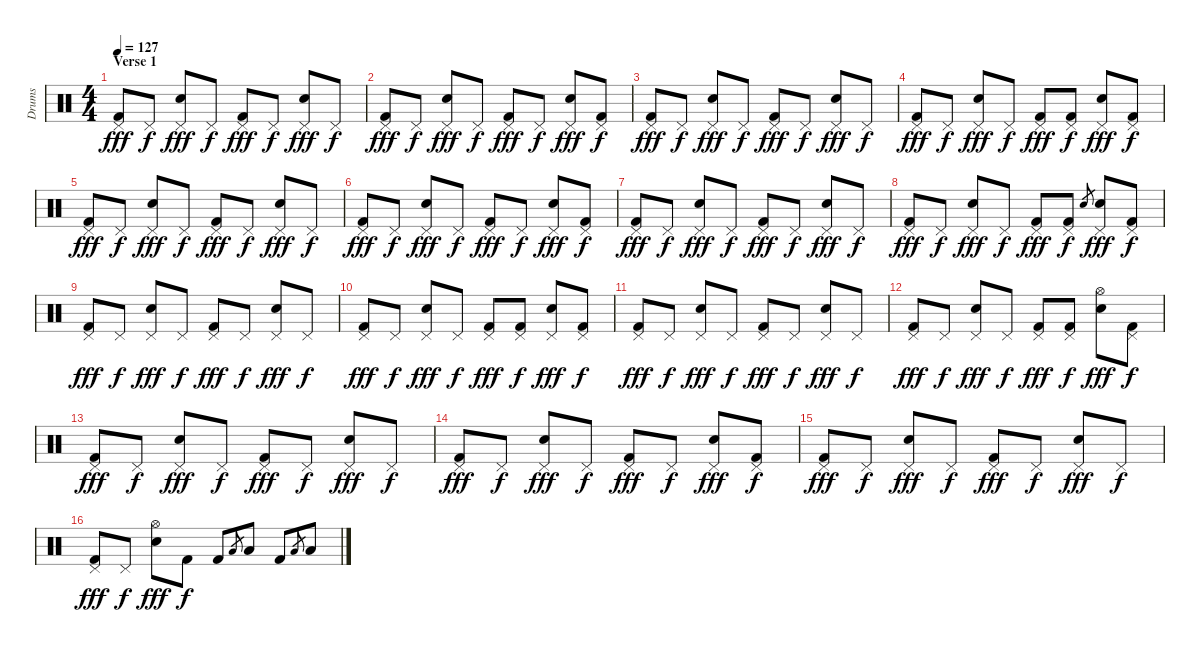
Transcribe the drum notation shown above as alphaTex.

\track ("Drums" "Drums") {instrument percussion}
\staff {score}
\articulation defaults
\ts (4 4)
\section ("" "Verse 1")
\tempo 127
\clef neutral
\ks c
("Pedal Hi-Hat (hit)" "Kick (hit) 2").8{dy fff} "Pedal Hi-Hat (hit)".8{dy f} ("Pedal Hi-Hat (hit)" "Snare (hit) 2").8{dy fff} "Pedal Hi-Hat (hit)".8{dy f} ("Pedal Hi-Hat (hit)" "Kick (hit) 2").8{dy fff} "Pedal Hi-Hat (hit)".8{dy f} ("Pedal Hi-Hat (hit)" "Snare (hit) 2").8{dy fff} "Pedal Hi-Hat (hit)".8{dy f} |
("Pedal Hi-Hat (hit)" "Kick (hit) 2").8{dy fff} "Pedal Hi-Hat (hit)".8{dy f} ("Pedal Hi-Hat (hit)" "Snare (hit) 2").8{dy fff} "Pedal Hi-Hat (hit)".8{dy f} ("Pedal Hi-Hat (hit)" "Kick (hit) 2").8{dy fff} "Pedal Hi-Hat (hit)".8{dy f} ("Pedal Hi-Hat (hit)" "Snare (hit) 2").8{dy fff} ("Pedal Hi-Hat (hit)" "Kick (hit) 2").8{dy f} |
("Pedal Hi-Hat (hit)" "Kick (hit) 2").8{dy fff} "Pedal Hi-Hat (hit)".8{dy f} ("Pedal Hi-Hat (hit)" "Snare (hit) 2").8{dy fff} "Pedal Hi-Hat (hit)".8{dy f} ("Pedal Hi-Hat (hit)" "Kick (hit) 2").8{dy fff} "Pedal Hi-Hat (hit)".8{dy f} ("Pedal Hi-Hat (hit)" "Snare (hit) 2").8{dy fff} "Pedal Hi-Hat (hit)".8{dy f} |
("Pedal Hi-Hat (hit)" "Kick (hit) 2").8{dy fff} "Pedal Hi-Hat (hit)".8{dy f} ("Pedal Hi-Hat (hit)" "Snare (hit) 2").8{dy fff} "Pedal Hi-Hat (hit)".8{dy f} ("Pedal Hi-Hat (hit)" "Kick (hit) 2").8{dy fff} ("Pedal Hi-Hat (hit)" "Kick (hit) 2").8{dy f} ("Pedal Hi-Hat (hit)" "Snare (hit) 2").8{dy fff} ("Pedal Hi-Hat (hit)" "Kick (hit) 2").8{dy f} |
("Pedal Hi-Hat (hit)" "Kick (hit) 2").8{dy fff} "Pedal Hi-Hat (hit)".8{dy f} ("Pedal Hi-Hat (hit)" "Snare (hit) 2").8{dy fff} "Pedal Hi-Hat (hit)".8{dy f} ("Pedal Hi-Hat (hit)" "Kick (hit) 2").8{dy fff} "Pedal Hi-Hat (hit)".8{dy f} ("Pedal Hi-Hat (hit)" "Snare (hit) 2").8{dy fff} "Pedal Hi-Hat (hit)".8{dy f} |
("Pedal Hi-Hat (hit)" "Kick (hit) 2").8{dy fff} "Pedal Hi-Hat (hit)".8{dy f} ("Pedal Hi-Hat (hit)" "Snare (hit) 2").8{dy fff} "Pedal Hi-Hat (hit)".8{dy f} ("Pedal Hi-Hat (hit)" "Kick (hit) 2").8{dy fff} "Pedal Hi-Hat (hit)".8{dy f} ("Pedal Hi-Hat (hit)" "Snare (hit) 2").8{dy fff} ("Pedal Hi-Hat (hit)" "Kick (hit) 2").8{dy f} |
("Pedal Hi-Hat (hit)" "Kick (hit) 2").8{dy fff} "Pedal Hi-Hat (hit)".8{dy f} ("Pedal Hi-Hat (hit)" "Snare (hit) 2").8{dy fff} "Pedal Hi-Hat (hit)".8{dy f} ("Pedal Hi-Hat (hit)" "Kick (hit) 2").8{dy fff} "Pedal Hi-Hat (hit)".8{dy f} ("Pedal Hi-Hat (hit)" "Snare (hit) 2").8{dy fff} "Pedal Hi-Hat (hit)".8{dy f} |
("Pedal Hi-Hat (hit)" "Kick (hit) 2").8{dy fff} "Pedal Hi-Hat (hit)".8{dy f} ("Pedal Hi-Hat (hit)" "Snare (hit) 2").8{dy fff} "Pedal Hi-Hat (hit)".8{dy f} ("Pedal Hi-Hat (hit)" "Kick (hit) 2").8{dy fff} ("Pedal Hi-Hat (hit)" "Kick (hit) 2").8{dy f} "Snare (hit) 2".8{gr} ("Pedal Hi-Hat (hit)" "Snare (hit) 2").8{dy fff} ("Pedal Hi-Hat (hit)" "Kick (hit) 2").8{dy f} |
("Pedal Hi-Hat (hit)" "Kick (hit) 2").8{dy fff} "Pedal Hi-Hat (hit)".8{dy f} ("Pedal Hi-Hat (hit)" "Snare (hit) 2").8{dy fff} "Pedal Hi-Hat (hit)".8{dy f} ("Pedal Hi-Hat (hit)" "Kick (hit) 2").8{dy fff} "Pedal Hi-Hat (hit)".8{dy f} ("Pedal Hi-Hat (hit)" "Snare (hit) 2").8{dy fff} "Pedal Hi-Hat (hit)".8{dy f} |
("Pedal Hi-Hat (hit)" "Kick (hit) 2").8{dy fff} "Pedal Hi-Hat (hit)".8{dy f} ("Pedal Hi-Hat (hit)" "Snare (hit) 2").8{dy fff} "Pedal Hi-Hat (hit)".8{dy f} ("Pedal Hi-Hat (hit)" "Kick (hit) 2").8{dy fff} ("Pedal Hi-Hat (hit)" "Kick (hit) 2").8{dy f} ("Pedal Hi-Hat (hit)" "Snare (hit) 2").8{dy fff} ("Pedal Hi-Hat (hit)" "Kick (hit) 2").8{dy f} |
("Pedal Hi-Hat (hit)" "Kick (hit) 2").8{dy fff} "Pedal Hi-Hat (hit)".8{dy f} ("Pedal Hi-Hat (hit)" "Snare (hit) 2").8{dy fff} "Pedal Hi-Hat (hit)".8{dy f} ("Pedal Hi-Hat (hit)" "Kick (hit) 2").8{dy fff} "Pedal Hi-Hat (hit)".8{dy f} ("Pedal Hi-Hat (hit)" "Snare (hit) 2").8{dy fff} "Pedal Hi-Hat (hit)".8{dy f} |
("Pedal Hi-Hat (hit)" "Kick (hit) 2").8{dy fff} "Pedal Hi-Hat (hit)".8{dy f} ("Pedal Hi-Hat (hit)" "Snare (hit) 2").8{dy fff} "Pedal Hi-Hat (hit)".8{dy f} ("Pedal Hi-Hat (hit)" "Kick (hit) 2").8{dy fff} ("Pedal Hi-Hat (hit)" "Kick (hit) 2").8{dy f} ("Hi-Hat (open)" "Snare (hit) 2").8{dy fff} ("Pedal Hi-Hat (hit)" "Kick (hit) 2").8{dy f} |
("Pedal Hi-Hat (hit)" "Kick (hit) 2").8{dy fff} "Pedal Hi-Hat (hit)".8{dy f} ("Pedal Hi-Hat (hit)" "Snare (hit) 2").8{dy fff} "Pedal Hi-Hat (hit)".8{dy f} ("Pedal Hi-Hat (hit)" "Kick (hit) 2").8{dy fff} "Pedal Hi-Hat (hit)".8{dy f} ("Pedal Hi-Hat (hit)" "Snare (hit) 2").8{dy fff} "Pedal Hi-Hat (hit)".8{dy f} |
("Pedal Hi-Hat (hit)" "Kick (hit) 2").8{dy fff} "Pedal Hi-Hat (hit)".8{dy f} ("Pedal Hi-Hat (hit)" "Snare (hit) 2").8{dy fff} "Pedal Hi-Hat (hit)".8{dy f} ("Pedal Hi-Hat (hit)" "Kick (hit) 2").8{dy fff} "Pedal Hi-Hat (hit)".8{dy f} ("Pedal Hi-Hat (hit)" "Snare (hit) 2").8{dy fff} ("Pedal Hi-Hat (hit)" "Kick (hit) 2").8{dy f} |
("Pedal Hi-Hat (hit)" "Kick (hit) 2").8{dy fff} "Pedal Hi-Hat (hit)".8{dy f} ("Pedal Hi-Hat (hit)" "Snare (hit) 2").8{dy fff} "Pedal Hi-Hat (hit)".8{dy f} ("Pedal Hi-Hat (hit)" "Kick (hit) 2").8{dy fff} "Pedal Hi-Hat (hit)".8{dy f} ("Pedal Hi-Hat (hit)" "Snare (hit) 2").8{dy fff} "Pedal Hi-Hat (hit)".8{dy f} |
("Pedal Hi-Hat (hit)" "Kick (hit) 2").8{dy fff} "Pedal Hi-Hat (hit)".8{dy f} ("Hi-Hat (open)" "Snare (hit) 2").8{dy fff} "Kick (hit) 2".8{dy f} "Kick (hit) 2".8 "Low Tom (hit)".8{gr} "Low Tom (hit)".8 "Kick (hit) 2".8 "Low Floor Tom (hit)".8{gr} "Low Floor Tom (hit)".8
